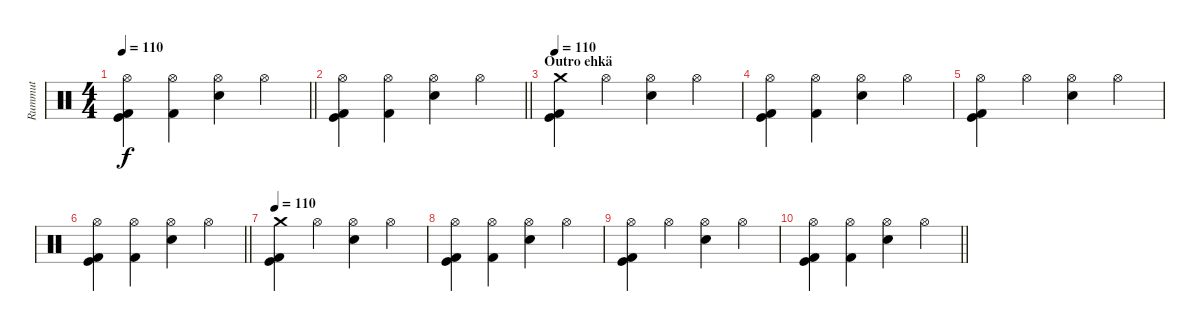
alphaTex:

\track ("Rummut" "Rummut") {instrument percussion}
\staff {score}
\articulation defaults
\ts (4 4)
\tempo 110
\clef neutral
\barLineRight lightlight
\ks c
("Hi-Hat (open)" "Kick (hit) 2" "Kick (hit)").4{dy f} ("Hi-Hat (open)" "Kick (hit) 2").4 ("Hi-Hat (open)" "Snare (hit) 2").4 "Hi-Hat (open)".4 |
\barLineRight lightlight
("Hi-Hat (open)" "Kick (hit) 2" "Kick (hit)").4 ("Hi-Hat (open)" "Kick (hit) 2").4 ("Hi-Hat (open)" "Snare (hit) 2").4 "Hi-Hat (open)".4 |
\section ("" "Outro ehkä")
\tempo 110
("Kick (hit) 2" "Kick (hit)" "Crash medium (hit)").4 "Hi-Hat (open)".4 ("Hi-Hat (open)" "Snare (hit) 2").4 "Hi-Hat (open)".4 |
("Hi-Hat (open)" "Kick (hit) 2" "Kick (hit)").4 ("Hi-Hat (open)" "Kick (hit) 2").4 ("Hi-Hat (open)" "Snare (hit) 2").4 "Hi-Hat (open)".4 |
("Hi-Hat (open)" "Kick (hit) 2" "Kick (hit)").4 "Hi-Hat (open)".4 ("Hi-Hat (open)" "Snare (hit) 2").4 "Hi-Hat (open)".4 |
\barLineRight lightlight
("Hi-Hat (open)" "Kick (hit) 2" "Kick (hit)").4 ("Hi-Hat (open)" "Kick (hit) 2").4 ("Hi-Hat (open)" "Snare (hit) 2").4 "Hi-Hat (open)".4 |
\tempo 110
("Kick (hit) 2" "Kick (hit)" "Crash medium (hit)").4 "Hi-Hat (open)".4 ("Hi-Hat (open)" "Snare (hit) 2").4 "Hi-Hat (open)".4 |
("Hi-Hat (open)" "Kick (hit) 2" "Kick (hit)").4 ("Hi-Hat (open)" "Kick (hit) 2").4 ("Hi-Hat (open)" "Snare (hit) 2").4 "Hi-Hat (open)".4 |
("Hi-Hat (open)" "Kick (hit) 2" "Kick (hit)").4 "Hi-Hat (open)".4 ("Hi-Hat (open)" "Snare (hit) 2").4 "Hi-Hat (open)".4 |
\barLineRight lightlight
("Hi-Hat (open)" "Kick (hit) 2" "Kick (hit)").4 ("Hi-Hat (open)" "Kick (hit) 2").4 ("Hi-Hat (open)" "Snare (hit) 2").4 "Hi-Hat (open)".4
